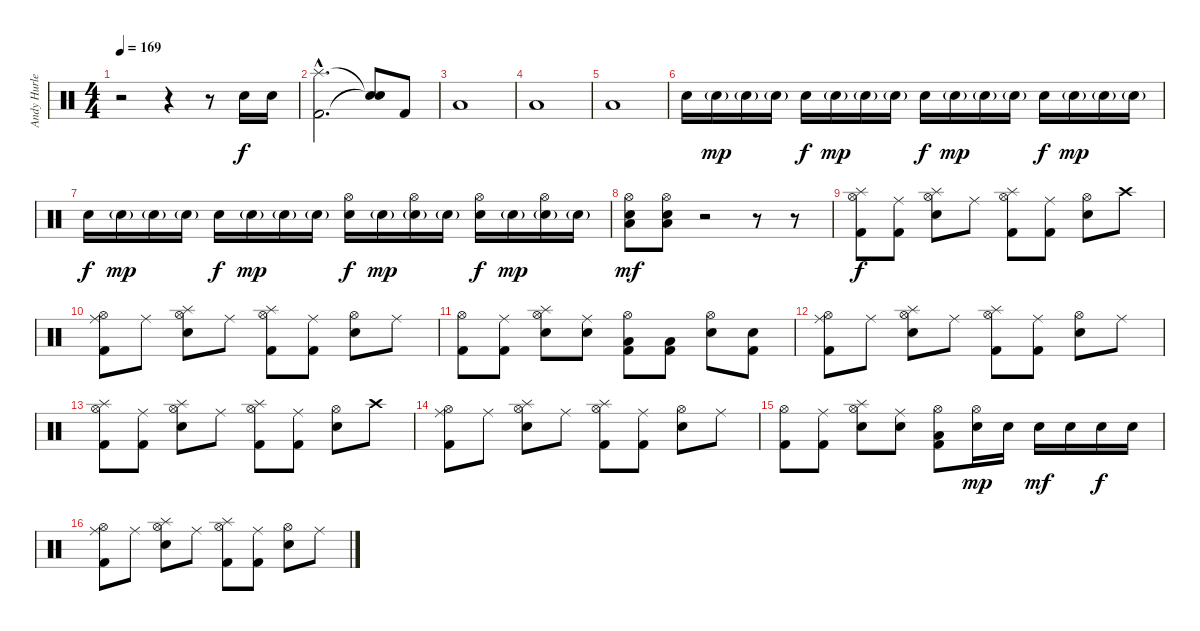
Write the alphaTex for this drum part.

\track ("Andy Hurley" "Andy Hurle") {instrument percussion}
\staff {score}
\articulation defaults
\ts (4 4)
\tempo 169
\clef neutral
\ks c
r.2{dy f} r.4 r.8 "Electric Snare (hit)".16 "Electric Snare (hit)".16 |
("Splash (hit)"{hac} "Kick (hit) 2"{hac}).2{d} ("Snare (hit)"{t} "Snare (hit)"{t}).8 "Kick (hit) 2".8 |
"Low Floor Tom (hit)".1 |
"Low Floor Tom (hit)".1 |
"Low Floor Tom (hit)".1 |
"Electric Snare (hit)".16 "Electric Snare (hit)"{g}.16{dy mp} "Electric Snare (hit)"{g}.16 "Electric Snare (hit)"{g}.16 "Electric Snare (hit)".16{dy f} "Electric Snare (hit)"{g}.16{dy mp} "Electric Snare (hit)"{g}.16 "Electric Snare (hit)"{g}.16 "Electric Snare (hit)".16{dy f} "Electric Snare (hit)"{g}.16{dy mp} "Electric Snare (hit)"{g}.16 "Electric Snare (hit)"{g}.16 "Electric Snare (hit)".16{dy f} "Electric Snare (hit)"{g}.16{dy mp} "Electric Snare (hit)"{g}.16 "Electric Snare (hit)"{g}.16 |
"Electric Snare (hit)".16{dy f} "Electric Snare (hit)"{g}.16{dy mp} "Electric Snare (hit)"{g}.16 "Electric Snare (hit)"{g}.16 "Electric Snare (hit)".16{dy f} "Electric Snare (hit)"{g}.16{dy mp} "Electric Snare (hit)"{g}.16 "Electric Snare (hit)"{g}.16 ("Hi-Hat (open)" "Electric Snare (hit)").16{dy f} "Electric Snare (hit)"{g}.16{dy mp} ("Hi-Hat (open)" "Electric Snare (hit)"{g}).16 "Electric Snare (hit)"{g}.16 ("Hi-Hat (open)" "Electric Snare (hit)").16{dy f} "Electric Snare (hit)"{g}.16{dy mp} ("Hi-Hat (open)" "Electric Snare (hit)"{g}).16 "Electric Snare (hit)"{g}.16 |
("Snare (hit) 2" "Hi-Hat (open)" "Low Floor Tom (hit)").8{dy mf} ("Snare (hit) 2" "Hi-Hat (open)" "Low Floor Tom (hit)").8 r.2 r.8 r.8 |
("Hi-Hat (open)" "Splash (hit)" "Kick (hit) 2").8{dy f} ("Ride (middle)" "Kick (hit) 2").8 ("Hi-Hat (open)" "Splash (hit)" "Electric Snare (hit)").8 "Ride (middle)".8 ("Hi-Hat (open)" "Splash (hit)" "Kick (hit) 2").8 ("Ride (middle)" "Kick (hit) 2").8 ("Hi-Hat (open)" "Electric Snare (hit)").8 "Crash high (hit)".8 |
("Hi-Hat (open)" "Ride (middle)" "Kick (hit) 2").8 "Ride (middle)".8 ("Hi-Hat (open)" "Splash (hit)" "Electric Snare (hit)").8 "Ride (middle)".8 ("Hi-Hat (open)" "Splash (hit)" "Kick (hit) 2").8 ("Ride (middle)" "Kick (hit) 2").8 ("Hi-Hat (open)" "Electric Snare (hit)").8 "Ride (middle)".8 |
("Hi-Hat (open)" "Kick (hit) 2").8 ("Ride (middle)" "Kick (hit) 2").8 ("Hi-Hat (open)" "Splash (hit)" "Electric Snare (hit)").8 ("Ride (middle)" "Electric Snare (hit)").8 ("Hi-Hat (open)" "Kick (hit) 2" "Low Floor Tom (hit)").8 ("Kick (hit) 2" "Low Floor Tom (hit)").8 ("Hi-Hat (open)" "Snare (hit) 2").8 ("Electric Snare (hit)" "Kick (hit) 2").8 |
("Hi-Hat (open)" "Ride (middle)" "Kick (hit) 2").8 "Ride (middle)".8 ("Hi-Hat (open)" "Splash (hit)" "Electric Snare (hit)").8 "Ride (middle)".8 ("Hi-Hat (open)" "Splash (hit)" "Kick (hit) 2").8 ("Ride (middle)" "Kick (hit) 2").8 ("Hi-Hat (open)" "Electric Snare (hit)").8 "Ride (middle)".8 |
("Hi-Hat (open)" "Splash (hit)" "Kick (hit) 2").8 ("Ride (middle)" "Kick (hit) 2").8 ("Hi-Hat (open)" "Splash (hit)" "Electric Snare (hit)").8 "Ride (middle)".8 ("Hi-Hat (open)" "Splash (hit)" "Kick (hit) 2").8 ("Ride (middle)" "Kick (hit) 2").8 ("Hi-Hat (open)" "Electric Snare (hit)").8 "Crash high (hit)".8 |
("Hi-Hat (open)" "Ride (middle)" "Kick (hit) 2").8 "Ride (middle)".8 ("Hi-Hat (open)" "Splash (hit)" "Electric Snare (hit)").8 "Ride (middle)".8 ("Hi-Hat (open)" "Splash (hit)" "Kick (hit) 2").8 ("Ride (middle)" "Kick (hit) 2").8 ("Hi-Hat (open)" "Electric Snare (hit)").8 "Ride (middle)".8 |
("Hi-Hat (open)" "Kick (hit) 2").8 ("Ride (middle)" "Kick (hit) 2").8 ("Hi-Hat (open)" "Splash (hit)" "Electric Snare (hit)").8 ("Ride (middle)" "Electric Snare (hit)").8 ("Hi-Hat (open)" "Kick (hit) 2" "Low Floor Tom (hit)").8 ("Hi-Hat (open)" "Electric Snare (hit)").16{dy mp} "Electric Snare (hit)".16 "Electric Snare (hit)".16{dy mf} "Electric Snare (hit)".16 "Electric Snare (hit)".16{dy f} "Electric Snare (hit)".16 |
("Hi-Hat (open)" "Ride (middle)" "Kick (hit) 2").8 "Ride (middle)".8 ("Hi-Hat (open)" "Splash (hit)" "Electric Snare (hit)").8 "Ride (middle)".8 ("Hi-Hat (open)" "Splash (hit)" "Kick (hit) 2").8 ("Ride (middle)" "Kick (hit) 2").8 ("Hi-Hat (open)" "Electric Snare (hit)").8 "Ride (middle)".8
